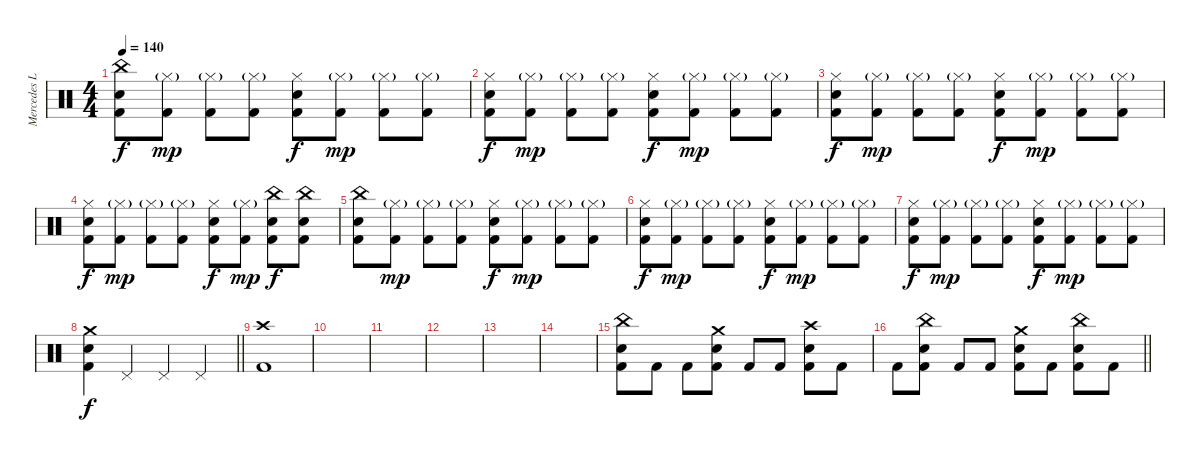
\track ("Mercedes Lander" "Mercedes L") {instrument percussion}
\staff {score}
\articulation defaults
\ts (4 4)
\tempo 140
\clef neutral
\ks c
("China (hit)" "Snare (hit) 2" "Kick (hit) 2").8{dy f} ("Hi-Hat (closed)"{g} "Kick (hit) 2").8{dy mp} ("Hi-Hat (closed)"{g} "Kick (hit) 2").8 ("Hi-Hat (closed)"{g} "Kick (hit) 2").8 ("Hi-Hat (closed)" "Snare (hit) 2" "Kick (hit) 2").8{dy f} ("Hi-Hat (closed)"{g} "Kick (hit) 2").8{dy mp} ("Hi-Hat (closed)"{g} "Kick (hit) 2").8 ("Hi-Hat (closed)"{g} "Kick (hit) 2").8 |
("Hi-Hat (closed)" "Snare (hit) 2" "Kick (hit) 2").8{dy f} ("Hi-Hat (closed)"{g} "Kick (hit) 2").8{dy mp} ("Hi-Hat (closed)"{g} "Kick (hit) 2").8 ("Hi-Hat (closed)"{g} "Kick (hit) 2").8 ("Hi-Hat (closed)" "Snare (hit) 2" "Kick (hit) 2").8{dy f} ("Hi-Hat (closed)"{g} "Kick (hit) 2").8{dy mp} ("Hi-Hat (closed)"{g} "Kick (hit) 2").8 ("Hi-Hat (closed)"{g} "Kick (hit) 2").8 |
("Hi-Hat (closed)" "Snare (hit) 2" "Kick (hit) 2").8{dy f} ("Hi-Hat (closed)"{g} "Kick (hit) 2").8{dy mp} ("Hi-Hat (closed)"{g} "Kick (hit) 2").8 ("Hi-Hat (closed)"{g} "Kick (hit) 2").8 ("Hi-Hat (closed)" "Snare (hit) 2" "Kick (hit) 2").8{dy f} ("Hi-Hat (closed)"{g} "Kick (hit) 2").8{dy mp} ("Hi-Hat (closed)"{g} "Kick (hit) 2").8 ("Hi-Hat (closed)"{g} "Kick (hit) 2").8 |
("Hi-Hat (closed)" "Snare (hit) 2" "Kick (hit) 2").8{dy f} ("Hi-Hat (closed)"{g} "Kick (hit) 2").8{dy mp} ("Hi-Hat (closed)"{g} "Kick (hit) 2").8 ("Hi-Hat (closed)"{g} "Kick (hit) 2").8 ("Hi-Hat (closed)" "Snare (hit) 2" "Kick (hit) 2").8{dy f} ("Hi-Hat (closed)"{g} "Kick (hit) 2").8{dy mp} ("China (hit)" "Snare (hit) 2" "Kick (hit) 2").8{dy f} ("China (hit)" "Snare (hit) 2" "Kick (hit) 2").8 |
("China (hit)" "Snare (hit) 2" "Kick (hit) 2").8 ("Hi-Hat (closed)"{g} "Kick (hit) 2").8{dy mp} ("Hi-Hat (closed)"{g} "Kick (hit) 2").8 ("Hi-Hat (closed)"{g} "Kick (hit) 2").8 ("Hi-Hat (closed)" "Snare (hit) 2" "Kick (hit) 2").8{dy f} ("Hi-Hat (closed)"{g} "Kick (hit) 2").8{dy mp} ("Hi-Hat (closed)"{g} "Kick (hit) 2").8 ("Hi-Hat (closed)"{g} "Kick (hit) 2").8 |
("Hi-Hat (closed)" "Snare (hit) 2" "Kick (hit) 2").8{dy f} ("Hi-Hat (closed)"{g} "Kick (hit) 2").8{dy mp} ("Hi-Hat (closed)"{g} "Kick (hit) 2").8 ("Hi-Hat (closed)"{g} "Kick (hit) 2").8 ("Hi-Hat (closed)" "Snare (hit) 2" "Kick (hit) 2").8{dy f} ("Hi-Hat (closed)"{g} "Kick (hit) 2").8{dy mp} ("Hi-Hat (closed)"{g} "Kick (hit) 2").8 ("Hi-Hat (closed)"{g} "Kick (hit) 2").8 |
("Hi-Hat (closed)" "Snare (hit) 2" "Kick (hit) 2").8{dy f} ("Hi-Hat (closed)"{g} "Kick (hit) 2").8{dy mp} ("Hi-Hat (closed)"{g} "Kick (hit) 2").8 ("Hi-Hat (closed)"{g} "Kick (hit) 2").8 ("Hi-Hat (closed)" "Snare (hit) 2" "Kick (hit) 2").8{dy f} ("Hi-Hat (closed)"{g} "Kick (hit) 2").8{dy mp} ("Hi-Hat (closed)"{g} "Kick (hit) 2").8 ("Hi-Hat (closed)"{g} "Kick (hit) 2").8 |
\barLineRight lightlight
("Crash medium (hit)" "Snare (hit) 2" "Kick (hit) 2").4{dy f} "Pedal Hi-Hat (hit)".4 "Pedal Hi-Hat (hit)".4 "Pedal Hi-Hat (hit)".4 |
("Crash high (hit)" "Kick (hit) 2").1 |
|
|
|
|
|
("China (hit)" "Snare (hit) 2" "Kick (hit) 2").8 "Kick (hit) 2".8 "Kick (hit) 2".8 ("Crash medium (hit)" "Snare (hit) 2" "Kick (hit) 2").8 "Kick (hit) 2".8 "Kick (hit) 2".8 ("Crash high (hit)" "Snare (hit) 2" "Kick (hit) 2").8 "Kick (hit) 2".8 |
\barLineRight lightlight "Kick (hit) 2".8
("China (hit)" "Snare (hit) 2" "Kick (hit) 2").8 "Kick (hit) 2".8 "Kick (hit) 2".8 ("Crash medium (hit)" "Snare (hit) 2" "Kick (hit) 2").8 "Kick (hit) 2".8 ("China (hit)" "Snare (hit) 2" "Kick (hit) 2").8 "Kick (hit) 2".8
